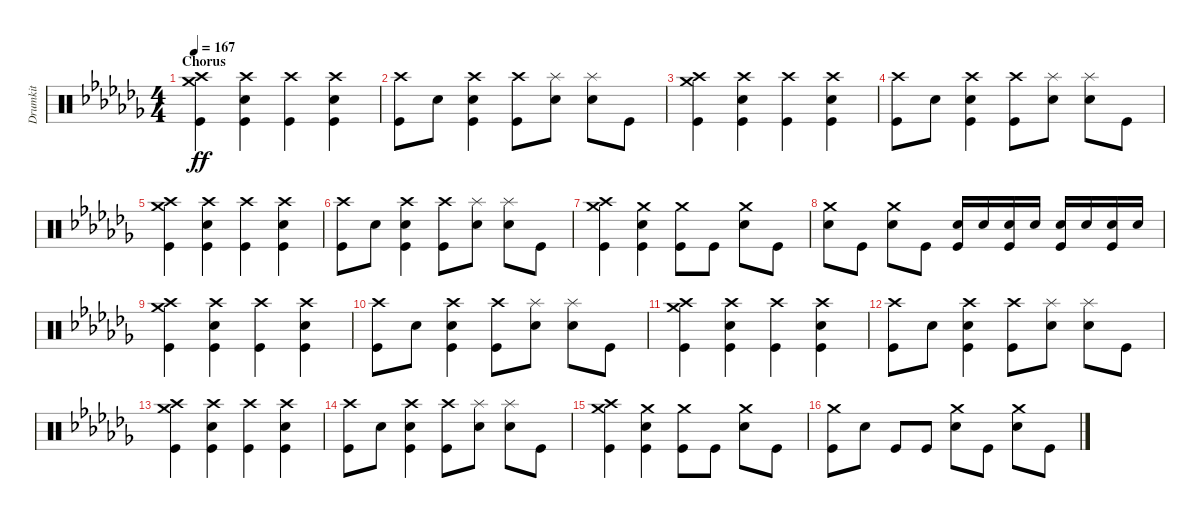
\track ("Drumkit" "Drumkit") {instrument percussion}
\staff {score}
\articulation defaults
\ts (4 4)
\section ("" "Chorus")
\tempo 167
\clef neutral
\ks abminor
("Crash high (hit)" "Crash medium (hit)" "Kick (hit)").4{dy ff} ("Snare (hit) 2" "Kick (hit)" "Crash high (hit)").4 ("Kick (hit)" "Crash high (hit)").4 ("Snare (hit) 2" "Kick (hit)" "Crash high (hit)").4 |
("Kick (hit)" "Crash high (hit)").8 "Snare (hit) 2".8 ("Snare (hit) 2" "Kick (hit)" "Crash high (hit)").4 ("Kick (hit)" "Crash high (hit)").8 ("Snare (hit) 2" "Splash (hit)").8 ("Snare (hit) 2" "Splash (hit)").8 "Kick (hit)".8 |
("Crash high (hit)" "Crash medium (hit)" "Kick (hit)").4 ("Snare (hit) 2" "Kick (hit)" "Crash high (hit)").4 ("Kick (hit)" "Crash high (hit)").4 ("Snare (hit) 2" "Kick (hit)" "Crash high (hit)").4 |
("Kick (hit)" "Crash high (hit)").8 "Snare (hit) 2".8 ("Snare (hit) 2" "Kick (hit)" "Crash high (hit)").4 ("Kick (hit)" "Crash high (hit)").8 ("Snare (hit) 2" "Splash (hit)").8 ("Snare (hit) 2" "Splash (hit)").8 "Kick (hit)".8 |
("Crash high (hit)" "Crash medium (hit)" "Kick (hit)").4 ("Snare (hit) 2" "Kick (hit)" "Crash high (hit)").4 ("Kick (hit)" "Crash high (hit)").4 ("Snare (hit) 2" "Kick (hit)" "Crash high (hit)").4 |
("Kick (hit)" "Crash high (hit)").8 "Snare (hit) 2".8 ("Snare (hit) 2" "Kick (hit)" "Crash high (hit)").4 ("Kick (hit)" "Crash high (hit)").8 ("Snare (hit) 2" "Splash (hit)").8 ("Snare (hit) 2" "Splash (hit)").8 "Kick (hit)".8 |
("Kick (hit)" "Crash medium (hit)" "Crash high (hit)").4 ("Kick (hit)" "Snare (hit) 2" "Crash medium (hit)").4 ("Kick (hit)" "Crash medium (hit)").8 "Kick (hit)".8 ("Snare (hit) 2" "Crash medium (hit)").8 "Kick (hit)".8 |
("Snare (hit) 2" "Crash medium (hit)").8 "Kick (hit)".8 ("Snare (hit) 2" "Crash medium (hit)").8 "Kick (hit)".8 ("Snare (hit) 2" "Kick (hit)").16 "Snare (hit) 2".16 ("Snare (hit) 2" "Kick (hit)").16 "Snare (hit) 2".16 ("Snare (hit) 2" "Kick (hit)").16 "Snare (hit) 2".16 ("Snare (hit) 2" "Kick (hit)").16 "Snare (hit) 2".16 |
("Crash high (hit)" "Crash medium (hit)" "Kick (hit)").4 ("Snare (hit) 2" "Kick (hit)" "Crash high (hit)").4 ("Kick (hit)" "Crash high (hit)").4 ("Snare (hit) 2" "Kick (hit)" "Crash high (hit)").4 |
("Kick (hit)" "Crash high (hit)").8 "Snare (hit) 2".8 ("Snare (hit) 2" "Kick (hit)" "Crash high (hit)").4 ("Kick (hit)" "Crash high (hit)").8 ("Snare (hit) 2" "Splash (hit)").8 ("Snare (hit) 2" "Splash (hit)").8 "Kick (hit)".8 |
("Crash high (hit)" "Crash medium (hit)" "Kick (hit)").4 ("Snare (hit) 2" "Kick (hit)" "Crash high (hit)").4 ("Kick (hit)" "Crash high (hit)").4 ("Snare (hit) 2" "Kick (hit)" "Crash high (hit)").4 |
("Kick (hit)" "Crash high (hit)").8 "Snare (hit) 2".8 ("Snare (hit) 2" "Kick (hit)" "Crash high (hit)").4 ("Kick (hit)" "Crash high (hit)").8 ("Snare (hit) 2" "Splash (hit)").8 ("Snare (hit) 2" "Splash (hit)").8 "Kick (hit)".8 |
("Crash high (hit)" "Crash medium (hit)" "Kick (hit)").4 ("Snare (hit) 2" "Kick (hit)" "Crash high (hit)").4 ("Kick (hit)" "Crash high (hit)").4 ("Snare (hit) 2" "Kick (hit)" "Crash high (hit)").4 |
("Kick (hit)" "Crash high (hit)").8 "Snare (hit) 2".8 ("Snare (hit) 2" "Kick (hit)" "Crash high (hit)").4 ("Kick (hit)" "Crash high (hit)").8 ("Snare (hit) 2" "Splash (hit)").8 ("Snare (hit) 2" "Splash (hit)").8 "Kick (hit)".8 |
("Kick (hit)" "Crash medium (hit)" "Crash high (hit)").4 ("Kick (hit)" "Snare (hit) 2" "Crash medium (hit)").4 ("Kick (hit)" "Crash medium (hit)").8 "Kick (hit)".8 ("Snare (hit) 2" "Crash medium (hit)").8 "Kick (hit)".8 |
("Kick (hit)" "Crash medium (hit)").8 "Snare (hit) 2".8 "Kick (hit)".8 "Kick (hit)".8 ("Snare (hit) 2" "Crash medium (hit)").8 "Kick (hit)".8 ("Snare (hit) 2" "Crash medium (hit)").8 "Kick (hit)".8
